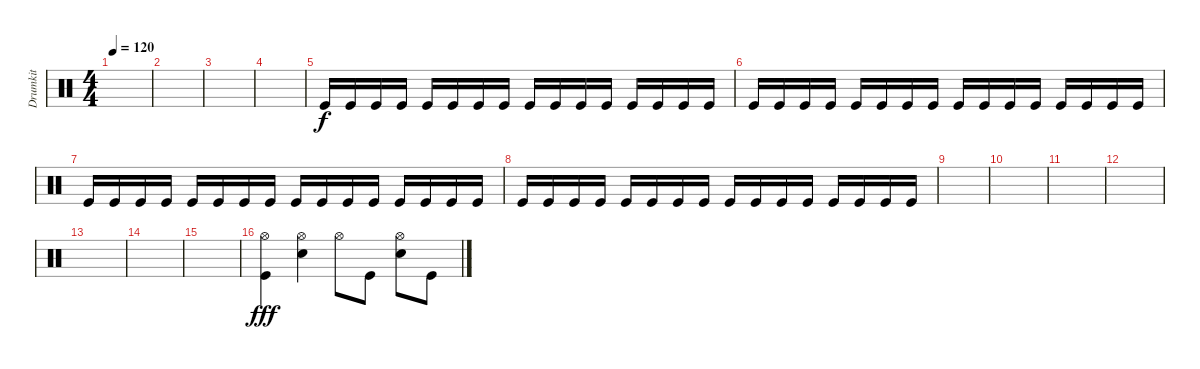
\track ("Drumkit" "Drumkit") {instrument percussion}
\staff {score}
\articulation defaults
\ts (4 4)
\tempo 120
\clef neutral
\ks c
|
|
|
|
"Kick (hit)".16 "Kick (hit)".16 "Kick (hit)".16 "Kick (hit)".16 "Kick (hit)".16 "Kick (hit)".16 "Kick (hit)".16 "Kick (hit)".16 "Kick (hit)".16 "Kick (hit)".16 "Kick (hit)".16 "Kick (hit)".16 "Kick (hit)".16 "Kick (hit)".16 "Kick (hit)".16 "Kick (hit)".16 |
"Kick (hit)".16 "Kick (hit)".16 "Kick (hit)".16 "Kick (hit)".16 "Kick (hit)".16 "Kick (hit)".16 "Kick (hit)".16 "Kick (hit)".16 "Kick (hit)".16 "Kick (hit)".16 "Kick (hit)".16 "Kick (hit)".16 "Kick (hit)".16 "Kick (hit)".16 "Kick (hit)".16 "Kick (hit)".16 |
"Kick (hit)".16 "Kick (hit)".16 "Kick (hit)".16 "Kick (hit)".16 "Kick (hit)".16 "Kick (hit)".16 "Kick (hit)".16 "Kick (hit)".16 "Kick (hit)".16 "Kick (hit)".16 "Kick (hit)".16 "Kick (hit)".16 "Kick (hit)".16 "Kick (hit)".16 "Kick (hit)".16 "Kick (hit)".16 |
"Kick (hit)".16 "Kick (hit)".16 "Kick (hit)".16 "Kick (hit)".16 "Kick (hit)".16 "Kick (hit)".16 "Kick (hit)".16 "Kick (hit)".16 "Kick (hit)".16 "Kick (hit)".16 "Kick (hit)".16 "Kick (hit)".16 "Kick (hit)".16 "Kick (hit)".16 "Kick (hit)".16 "Kick (hit)".16 |
|
|
|
|
|
|
|
("Kick (hit)" "Hi-Hat (open)").4{dy fff} ("Snare (hit) 2" "Hi-Hat (open)").4 "Hi-Hat (open)".8 "Kick (hit)".8 ("Hi-Hat (open)" "Snare (hit) 2").8 "Kick (hit)".8
